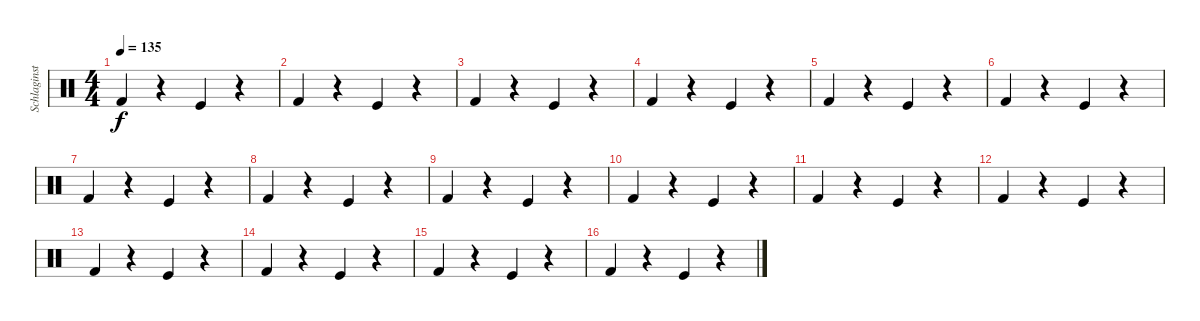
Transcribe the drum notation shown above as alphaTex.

\track ("Schlaginstrumente - Auswahl" "Schlaginst") {instrument percussion}
\staff {score}
\articulation defaults
\ts (4 4)
\tempo 135
\clef neutral
\ks c "Kick (hit) 2".4{dy f}
r.4 "Kick (hit)".4 r.4 |
"Kick (hit) 2".4 r.4 "Kick (hit)".4 r.4 |
"Kick (hit) 2".4 r.4 "Kick (hit)".4 r.4 |
"Kick (hit) 2".4 r.4 "Kick (hit)".4 r.4 |
"Kick (hit) 2".4 r.4 "Kick (hit)".4 r.4 |
"Kick (hit) 2".4 r.4 "Kick (hit)".4 r.4 |
"Kick (hit) 2".4 r.4 "Kick (hit)".4 r.4 |
"Kick (hit) 2".4 r.4 "Kick (hit)".4 r.4 |
"Kick (hit) 2".4 r.4 "Kick (hit)".4 r.4 |
"Kick (hit) 2".4 r.4 "Kick (hit)".4 r.4 |
"Kick (hit) 2".4 r.4 "Kick (hit)".4 r.4 |
"Kick (hit) 2".4 r.4 "Kick (hit)".4 r.4 |
"Kick (hit) 2".4 r.4 "Kick (hit)".4 r.4 |
"Kick (hit) 2".4 r.4 "Kick (hit)".4 r.4 |
"Kick (hit) 2".4 r.4 "Kick (hit)".4 r.4 |
"Kick (hit) 2".4 r.4 "Kick (hit)".4 r.4
